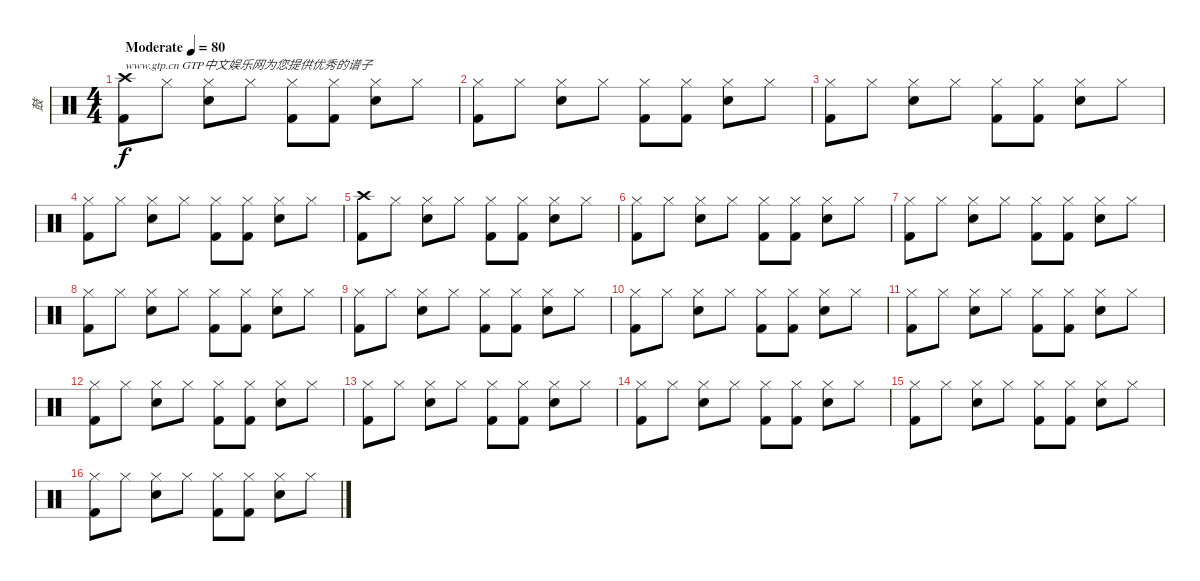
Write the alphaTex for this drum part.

\track ("鼓" "鼓") {instrument percussion}
\staff {score}
\articulation defaults
\ts (4 4)
\tempo (80 "Moderate")
\clef neutral
\ks c
("Crash high (hit)" "Kick (hit) 2").8{txt "www.gtp.cn GTP中文娱乐网为您提供优秀的谱子" dy f} "Hi-Hat (closed)".8 ("Hi-Hat (closed)" "Electric Snare (hit)").8 "Hi-Hat (closed)".8 ("Hi-Hat (closed)" "Kick (hit) 2").8 ("Hi-Hat (closed)" "Kick (hit) 2").8 ("Hi-Hat (closed)" "Electric Snare (hit)").8 "Hi-Hat (closed)".8 |
("Hi-Hat (closed)" "Kick (hit) 2").8 "Hi-Hat (closed)".8 ("Hi-Hat (closed)" "Electric Snare (hit)").8 "Hi-Hat (closed)".8 ("Hi-Hat (closed)" "Kick (hit) 2").8 ("Hi-Hat (closed)" "Kick (hit) 2").8 ("Hi-Hat (closed)" "Electric Snare (hit)").8 "Hi-Hat (closed)".8 |
("Hi-Hat (closed)" "Kick (hit) 2").8 "Hi-Hat (closed)".8 ("Hi-Hat (closed)" "Electric Snare (hit)").8 "Hi-Hat (closed)".8 ("Hi-Hat (closed)" "Kick (hit) 2").8 ("Hi-Hat (closed)" "Kick (hit) 2").8 ("Hi-Hat (closed)" "Electric Snare (hit)").8 "Hi-Hat (closed)".8 |
("Hi-Hat (closed)" "Kick (hit) 2").8 "Hi-Hat (closed)".8 ("Hi-Hat (closed)" "Electric Snare (hit)").8 "Hi-Hat (closed)".8 ("Hi-Hat (closed)" "Kick (hit) 2").8 ("Hi-Hat (closed)" "Kick (hit) 2").8 ("Hi-Hat (closed)" "Electric Snare (hit)").8 "Hi-Hat (closed)".8 |
("Crash high (hit)" "Kick (hit) 2").8 "Hi-Hat (closed)".8 ("Hi-Hat (closed)" "Electric Snare (hit)").8 "Hi-Hat (closed)".8 ("Hi-Hat (closed)" "Kick (hit) 2").8 ("Hi-Hat (closed)" "Kick (hit) 2").8 ("Hi-Hat (closed)" "Electric Snare (hit)").8 "Hi-Hat (closed)".8 |
("Hi-Hat (closed)" "Kick (hit) 2").8 "Hi-Hat (closed)".8 ("Hi-Hat (closed)" "Electric Snare (hit)").8 "Hi-Hat (closed)".8 ("Hi-Hat (closed)" "Kick (hit) 2").8 ("Hi-Hat (closed)" "Kick (hit) 2").8 ("Hi-Hat (closed)" "Electric Snare (hit)").8 "Hi-Hat (closed)".8 |
("Hi-Hat (closed)" "Kick (hit) 2").8 "Hi-Hat (closed)".8 ("Hi-Hat (closed)" "Electric Snare (hit)").8 "Hi-Hat (closed)".8 ("Hi-Hat (closed)" "Kick (hit) 2").8 ("Hi-Hat (closed)" "Kick (hit) 2").8 ("Hi-Hat (closed)" "Electric Snare (hit)").8 "Hi-Hat (closed)".8 |
("Hi-Hat (closed)" "Kick (hit) 2").8 "Hi-Hat (closed)".8 ("Hi-Hat (closed)" "Electric Snare (hit)").8 "Hi-Hat (closed)".8 ("Hi-Hat (closed)" "Kick (hit) 2").8 ("Hi-Hat (closed)" "Kick (hit) 2").8 ("Hi-Hat (closed)" "Electric Snare (hit)").8 "Hi-Hat (closed)".8 |
("Hi-Hat (closed)" "Kick (hit) 2").8 "Hi-Hat (closed)".8 ("Hi-Hat (closed)" "Electric Snare (hit)").8 "Hi-Hat (closed)".8 ("Hi-Hat (closed)" "Kick (hit) 2").8 ("Hi-Hat (closed)" "Kick (hit) 2").8 ("Hi-Hat (closed)" "Electric Snare (hit)").8 "Hi-Hat (closed)".8 |
("Hi-Hat (closed)" "Kick (hit) 2").8 "Hi-Hat (closed)".8 ("Hi-Hat (closed)" "Electric Snare (hit)").8 "Hi-Hat (closed)".8 ("Hi-Hat (closed)" "Kick (hit) 2").8 ("Hi-Hat (closed)" "Kick (hit) 2").8 ("Hi-Hat (closed)" "Electric Snare (hit)").8 "Hi-Hat (closed)".8 |
("Hi-Hat (closed)" "Kick (hit) 2").8 "Hi-Hat (closed)".8 ("Hi-Hat (closed)" "Electric Snare (hit)").8 "Hi-Hat (closed)".8 ("Hi-Hat (closed)" "Kick (hit) 2").8 ("Hi-Hat (closed)" "Kick (hit) 2").8 ("Hi-Hat (closed)" "Electric Snare (hit)").8 "Hi-Hat (closed)".8 |
("Hi-Hat (closed)" "Kick (hit) 2").8 "Hi-Hat (closed)".8 ("Hi-Hat (closed)" "Electric Snare (hit)").8 "Hi-Hat (closed)".8 ("Hi-Hat (closed)" "Kick (hit) 2").8 ("Hi-Hat (closed)" "Kick (hit) 2").8 ("Hi-Hat (closed)" "Electric Snare (hit)").8 "Hi-Hat (closed)".8 |
("Hi-Hat (closed)" "Kick (hit) 2").8 "Hi-Hat (closed)".8 ("Hi-Hat (closed)" "Electric Snare (hit)").8 "Hi-Hat (closed)".8 ("Hi-Hat (closed)" "Kick (hit) 2").8 ("Hi-Hat (closed)" "Kick (hit) 2").8 ("Hi-Hat (closed)" "Electric Snare (hit)").8 "Hi-Hat (closed)".8 |
("Hi-Hat (closed)" "Kick (hit) 2").8 "Hi-Hat (closed)".8 ("Hi-Hat (closed)" "Electric Snare (hit)").8 "Hi-Hat (closed)".8 ("Hi-Hat (closed)" "Kick (hit) 2").8 ("Hi-Hat (closed)" "Kick (hit) 2").8 ("Hi-Hat (closed)" "Electric Snare (hit)").8 "Hi-Hat (closed)".8 |
("Hi-Hat (closed)" "Kick (hit) 2").8 "Hi-Hat (closed)".8 ("Hi-Hat (closed)" "Electric Snare (hit)").8 "Hi-Hat (closed)".8 ("Hi-Hat (closed)" "Kick (hit) 2").8 ("Hi-Hat (closed)" "Kick (hit) 2").8 ("Hi-Hat (closed)" "Electric Snare (hit)").8 "Hi-Hat (closed)".8 |
("Hi-Hat (closed)" "Kick (hit) 2").8 "Hi-Hat (closed)".8 ("Hi-Hat (closed)" "Electric Snare (hit)").8 "Hi-Hat (closed)".8 ("Hi-Hat (closed)" "Kick (hit) 2").8 ("Hi-Hat (closed)" "Kick (hit) 2").8 ("Hi-Hat (closed)" "Electric Snare (hit)").8 "Hi-Hat (closed)".8
